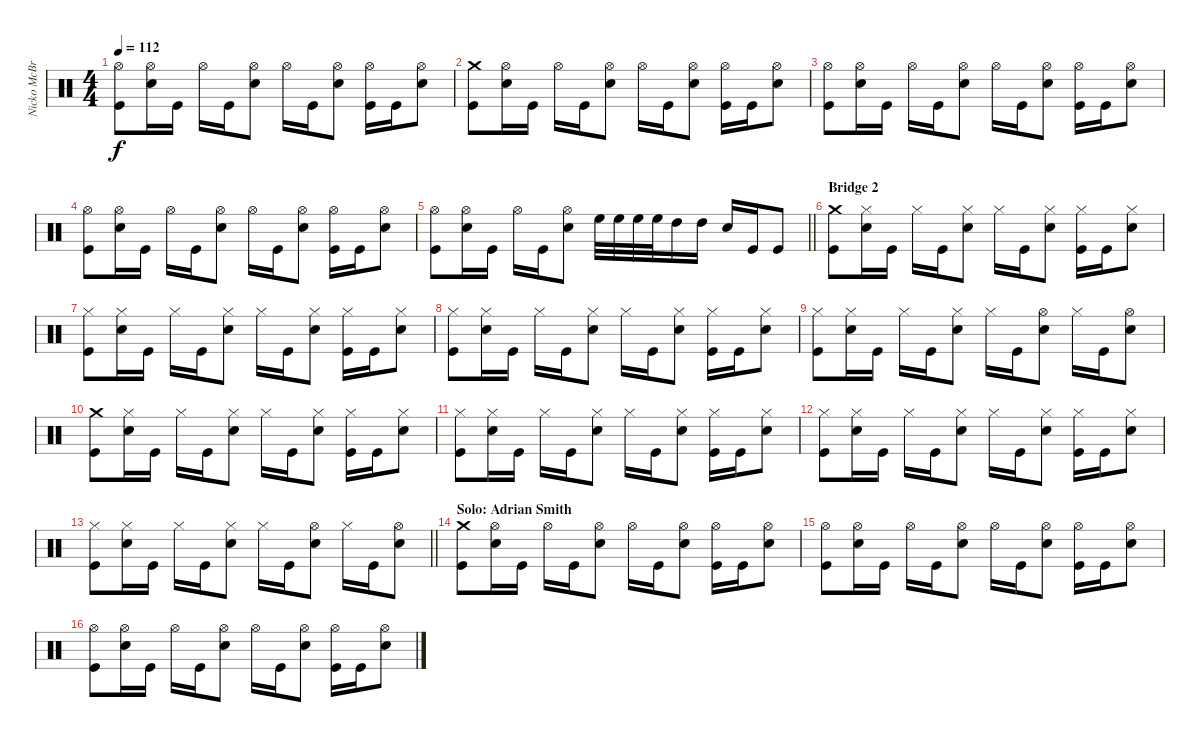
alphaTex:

\track ("Nicko McBrain" "Nicko McBr") {instrument percussion}
\staff {score}
\articulation defaults
\ts (4 4)
\tempo 112
\clef neutral
\ks c
("Hi-Hat (open)" "Kick (hit)").8{dy f} ("Hi-Hat (open)" "Snare (hit) 2").16 "Kick (hit)".16 "Hi-Hat (open)".16 "Kick (hit)".16 ("Hi-Hat (open)" "Snare (hit) 2").8 "Hi-Hat (open)".16 "Kick (hit)".16 ("Hi-Hat (open)" "Snare (hit) 2").8 ("Hi-Hat (open)" "Kick (hit)").16 "Kick (hit)".16 ("Hi-Hat (open)" "Snare (hit) 2").8 |
("Crash medium (hit)" "Kick (hit)").8 ("Hi-Hat (open)" "Snare (hit) 2").16 "Kick (hit)".16 "Hi-Hat (open)".16 "Kick (hit)".16 ("Hi-Hat (open)" "Snare (hit) 2").8 "Hi-Hat (open)".16 "Kick (hit)".16 ("Hi-Hat (open)" "Snare (hit) 2").8 ("Hi-Hat (open)" "Kick (hit)").16 "Kick (hit)".16 ("Hi-Hat (open)" "Snare (hit) 2").8 |
("Hi-Hat (open)" "Kick (hit)").8 ("Hi-Hat (open)" "Snare (hit) 2").16 "Kick (hit)".16 "Hi-Hat (open)".16 "Kick (hit)".16 ("Hi-Hat (open)" "Snare (hit) 2").8 "Hi-Hat (open)".16 "Kick (hit)".16 ("Hi-Hat (open)" "Snare (hit) 2").8 ("Hi-Hat (open)" "Kick (hit)").16 "Kick (hit)".16 ("Hi-Hat (open)" "Snare (hit) 2").8 |
("Hi-Hat (open)" "Kick (hit)").8 ("Hi-Hat (open)" "Snare (hit) 2").16 "Kick (hit)".16 "Hi-Hat (open)".16 "Kick (hit)".16 ("Hi-Hat (open)" "Snare (hit) 2").8 "Hi-Hat (open)".16 "Kick (hit)".16 ("Hi-Hat (open)" "Snare (hit) 2").8 ("Hi-Hat (open)" "Kick (hit)").16 "Kick (hit)".16 ("Hi-Hat (open)" "Snare (hit) 2").8 |
\barLineRight lightlight
("Hi-Hat (open)" "Kick (hit)").8 ("Hi-Hat (open)" "Snare (hit) 2").16 "Kick (hit)".16 "Hi-Hat (open)".16 "Kick (hit)".16 ("Hi-Hat (open)" "Snare (hit) 2").8 "High Floor Tom (hit)".32 "High Floor Tom (hit)".32 "High Floor Tom (hit)".32 "High Floor Tom (hit)".32 "High Tom (hit)".16 "High Tom (hit)".16 "Snare (hit) 2".16 "Kick (hit)".16 "Kick (hit)".8 |
\section ("" "Bridge 2")
("Crash medium (hit)" "Kick (hit)").8 ("Hi-Hat (closed)" "Snare (hit) 2").16 "Kick (hit)".16 "Hi-Hat (closed)".16 "Kick (hit)".16 ("Hi-Hat (closed)" "Snare (hit) 2").8 "Hi-Hat (closed)".16 "Kick (hit)".16 ("Hi-Hat (closed)" "Snare (hit) 2").8 ("Hi-Hat (closed)" "Kick (hit)").16 "Kick (hit)".16 ("Hi-Hat (closed)" "Snare (hit) 2").8 |
("Hi-Hat (closed)" "Kick (hit)").8 ("Hi-Hat (closed)" "Snare (hit) 2").16 "Kick (hit)".16 "Hi-Hat (closed)".16 "Kick (hit)".16 ("Hi-Hat (closed)" "Snare (hit) 2").8 "Hi-Hat (closed)".16 "Kick (hit)".16 ("Hi-Hat (closed)" "Snare (hit) 2").8 ("Hi-Hat (closed)" "Kick (hit)").16 "Kick (hit)".16 ("Hi-Hat (closed)" "Snare (hit) 2").8 |
("Hi-Hat (closed)" "Kick (hit)").8 ("Hi-Hat (closed)" "Snare (hit) 2").16 "Kick (hit)".16 "Hi-Hat (closed)".16 "Kick (hit)".16 ("Hi-Hat (closed)" "Snare (hit) 2").8 "Hi-Hat (closed)".16 "Kick (hit)".16 ("Hi-Hat (closed)" "Snare (hit) 2").8 ("Hi-Hat (closed)" "Kick (hit)").16 "Kick (hit)".16 ("Hi-Hat (closed)" "Snare (hit) 2").8 |
("Hi-Hat (closed)" "Kick (hit)").8 ("Hi-Hat (closed)" "Snare (hit) 2").16 "Kick (hit)".16 "Hi-Hat (closed)".16 "Kick (hit)".16 ("Hi-Hat (closed)" "Snare (hit) 2").8 "Hi-Hat (closed)".16 "Kick (hit)".16 ("Hi-Hat (open)" "Snare (hit) 2").8 "Hi-Hat (closed)".16 "Kick (hit)".16 ("Hi-Hat (open)" "Snare (hit) 2").8 |
("Crash medium (hit)" "Kick (hit)").8 ("Hi-Hat (closed)" "Snare (hit) 2").16 "Kick (hit)".16 "Hi-Hat (closed)".16 "Kick (hit)".16 ("Hi-Hat (closed)" "Snare (hit) 2").8 "Hi-Hat (closed)".16 "Kick (hit)".16 ("Hi-Hat (closed)" "Snare (hit) 2").8 ("Hi-Hat (closed)" "Kick (hit)").16 "Kick (hit)".16 ("Hi-Hat (closed)" "Snare (hit) 2").8 |
("Hi-Hat (closed)" "Kick (hit)").8 ("Hi-Hat (closed)" "Snare (hit) 2").16 "Kick (hit)".16 "Hi-Hat (closed)".16 "Kick (hit)".16 ("Hi-Hat (closed)" "Snare (hit) 2").8 "Hi-Hat (closed)".16 "Kick (hit)".16 ("Hi-Hat (closed)" "Snare (hit) 2").8 ("Hi-Hat (closed)" "Kick (hit)").16 "Kick (hit)".16 ("Hi-Hat (closed)" "Snare (hit) 2").8 |
("Hi-Hat (closed)" "Kick (hit)").8 ("Hi-Hat (closed)" "Snare (hit) 2").16 "Kick (hit)".16 "Hi-Hat (closed)".16 "Kick (hit)".16 ("Hi-Hat (closed)" "Snare (hit) 2").8 "Hi-Hat (closed)".16 "Kick (hit)".16 ("Hi-Hat (closed)" "Snare (hit) 2").8 ("Hi-Hat (closed)" "Kick (hit)").16 "Kick (hit)".16 ("Hi-Hat (closed)" "Snare (hit) 2").8 |
\barLineRight lightlight
("Hi-Hat (closed)" "Kick (hit)").8 ("Hi-Hat (closed)" "Snare (hit) 2").16 "Kick (hit)".16 "Hi-Hat (closed)".16 "Kick (hit)".16 ("Hi-Hat (closed)" "Snare (hit) 2").8 "Hi-Hat (closed)".16 "Kick (hit)".16 ("Hi-Hat (open)" "Snare (hit) 2").8 "Hi-Hat (closed)".16 "Kick (hit)".16 ("Hi-Hat (open)" "Snare (hit) 2").8 |
\section ("" "Solo: Adrian Smith")
("Crash medium (hit)" "Kick (hit)").8 ("Hi-Hat (open)" "Snare (hit) 2").16 "Kick (hit)".16 "Hi-Hat (open)".16 "Kick (hit)".16 ("Hi-Hat (open)" "Snare (hit) 2").8 "Hi-Hat (open)".16 "Kick (hit)".16 ("Hi-Hat (open)" "Snare (hit) 2").8 ("Hi-Hat (open)" "Kick (hit)").16 "Kick (hit)".16 ("Hi-Hat (open)" "Snare (hit) 2").8 |
("Hi-Hat (open)" "Kick (hit)").8 ("Hi-Hat (open)" "Snare (hit) 2").16 "Kick (hit)".16 "Hi-Hat (open)".16 "Kick (hit)".16 ("Hi-Hat (open)" "Snare (hit) 2").8 "Hi-Hat (open)".16 "Kick (hit)".16 ("Hi-Hat (open)" "Snare (hit) 2").8 ("Hi-Hat (open)" "Kick (hit)").16 "Kick (hit)".16 ("Hi-Hat (open)" "Snare (hit) 2").8 |
("Hi-Hat (open)" "Kick (hit)").8 ("Hi-Hat (open)" "Snare (hit) 2").16 "Kick (hit)".16 "Hi-Hat (open)".16 "Kick (hit)".16 ("Hi-Hat (open)" "Snare (hit) 2").8 "Hi-Hat (open)".16 "Kick (hit)".16 ("Hi-Hat (open)" "Snare (hit) 2").8 ("Hi-Hat (open)" "Kick (hit)").16 "Kick (hit)".16 ("Hi-Hat (open)" "Snare (hit) 2").8
